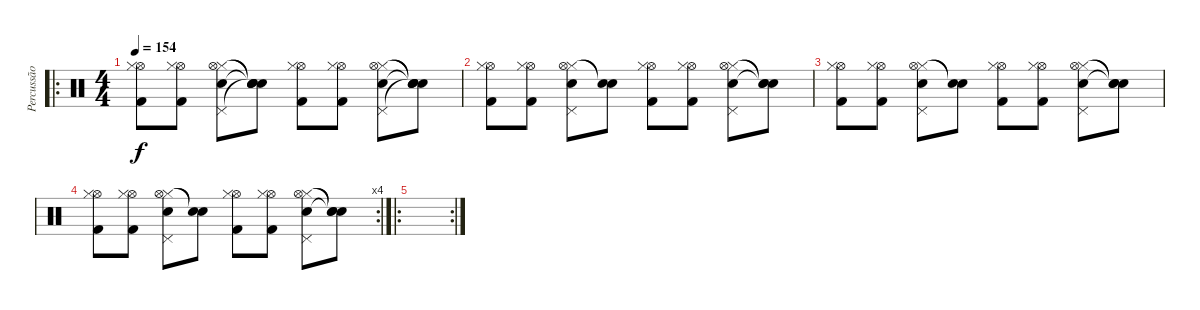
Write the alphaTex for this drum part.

\track ("Percussão" "Percussão") {instrument percussion}
\staff {score}
\articulation defaults
\ro
\ts (4 4)
\tempo 154
\clef neutral
\ks c
("Hi-Hat (open)" "Kick (hit) 2" "Hi-Hat (closed)").8{dy f} ("Hi-Hat (open)" "Kick (hit) 2" "Hi-Hat (closed)").8 ("Hi-Hat (closed)" "Hi-Hat (open)" "Snare (hit) 2" "Pedal Hi-Hat (hit)").8 ("Snare (hit)"{t} "Snare (hit)"{t} "Snare (hit)"{t} "Snare (hit)"{t}).8 ("Hi-Hat (open)" "Kick (hit) 2" "Hi-Hat (closed)").8 ("Hi-Hat (open)" "Kick (hit) 2" "Hi-Hat (closed)").8 ("Hi-Hat (closed)" "Hi-Hat (open)" "Snare (hit) 2" "Pedal Hi-Hat (hit)").8 ("Snare (hit)"{t} "Snare (hit)"{t} "Snare (hit)"{t} "Snare (hit)"{t}).8 |
("Hi-Hat (open)" "Kick (hit) 2" "Hi-Hat (closed)").8 ("Hi-Hat (open)" "Kick (hit) 2" "Hi-Hat (closed)").8 ("Hi-Hat (closed)" "Hi-Hat (open)" "Snare (hit) 2" "Pedal Hi-Hat (hit)").8 ("Snare (hit)"{t} "Snare (hit)"{t}).8 ("Hi-Hat (open)" "Kick (hit) 2" "Hi-Hat (closed)").8 ("Hi-Hat (open)" "Kick (hit) 2" "Hi-Hat (closed)").8 ("Hi-Hat (closed)" "Hi-Hat (open)" "Snare (hit) 2" "Pedal Hi-Hat (hit)").8 ("Snare (hit)"{t} "Snare (hit)"{t} "Snare (hit)"{t}).8 |
("Hi-Hat (open)" "Kick (hit) 2" "Hi-Hat (closed)").8 ("Hi-Hat (open)" "Kick (hit) 2" "Hi-Hat (closed)").8 ("Hi-Hat (closed)" "Hi-Hat (open)" "Snare (hit) 2" "Pedal Hi-Hat (hit)").8 ("Snare (hit)"{t} "Snare (hit)"{t}).8 ("Hi-Hat (open)" "Kick (hit) 2" "Hi-Hat (closed)").8 ("Hi-Hat (open)" "Kick (hit) 2" "Hi-Hat (closed)").8 ("Hi-Hat (closed)" "Hi-Hat (open)" "Snare (hit) 2" "Pedal Hi-Hat (hit)").8 ("Snare (hit)"{t} "Snare (hit)"{t} "Snare (hit)"{t}).8 |
\rc 4
("Hi-Hat (open)" "Kick (hit) 2" "Hi-Hat (closed)").8 ("Hi-Hat (open)" "Kick (hit) 2" "Hi-Hat (closed)").8 ("Hi-Hat (closed)" "Hi-Hat (open)" "Snare (hit) 2" "Pedal Hi-Hat (hit)").8 ("Snare (hit)"{t} "Snare (hit)"{t}).8 ("Hi-Hat (open)" "Kick (hit) 2" "Hi-Hat (closed)").8 ("Hi-Hat (open)" "Kick (hit) 2" "Hi-Hat (closed)").8 ("Hi-Hat (closed)" "Hi-Hat (open)" "Snare (hit) 2" "Pedal Hi-Hat (hit)").8 ("Snare (hit)"{t} "Snare (hit)"{t} "Snare (hit)"{t}).8 |
\ro
\rc 2
